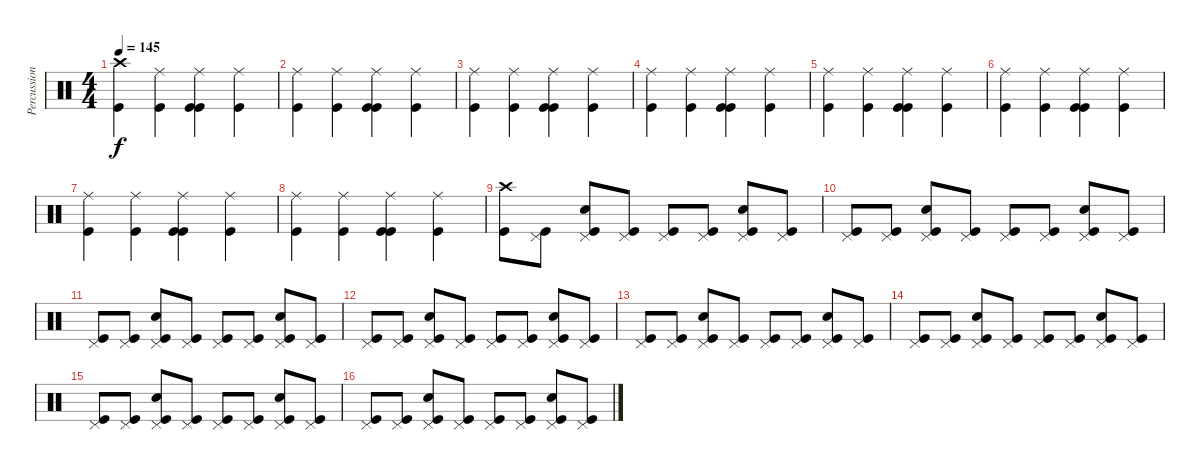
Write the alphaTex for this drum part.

\track ("Percussion" "Percussion") {instrument percussion}
\staff {score}
\articulation defaults
\ts (4 4)
\tempo 145
\clef neutral
\ks c
("Crash high (hit)" "Kick (hit)").4{dy f} ("Ride (middle)" "Kick (hit)").4 ("Ride (middle)" "Kick (hit)" "Kick (hit)").4 ("Ride (middle)" "Kick (hit)").4 |
("Ride (middle)" "Kick (hit)").4 ("Ride (middle)" "Kick (hit)").4 ("Ride (middle)" "Kick (hit)" "Kick (hit)").4 ("Ride (middle)" "Kick (hit)").4 |
("Ride (middle)" "Kick (hit)").4 ("Ride (middle)" "Kick (hit)").4 ("Ride (middle)" "Kick (hit)" "Kick (hit)").4 ("Ride (middle)" "Kick (hit)").4 |
("Ride (middle)" "Kick (hit)").4 ("Ride (middle)" "Kick (hit)").4 ("Ride (middle)" "Kick (hit)" "Kick (hit)").4 ("Ride (middle)" "Kick (hit)").4 |
("Ride (middle)" "Kick (hit)").4 ("Ride (middle)" "Kick (hit)").4 ("Ride (middle)" "Kick (hit)" "Kick (hit)").4 ("Ride (middle)" "Kick (hit)").4 |
("Ride (middle)" "Kick (hit)").4 ("Ride (middle)" "Kick (hit)").4 ("Ride (middle)" "Kick (hit)" "Kick (hit)").4 ("Ride (middle)" "Kick (hit)").4 |
("Ride (middle)" "Kick (hit)").4 ("Ride (middle)" "Kick (hit)").4 ("Ride (middle)" "Kick (hit)" "Kick (hit)").4 ("Ride (middle)" "Kick (hit)").4 |
("Ride (middle)" "Kick (hit)").4 ("Ride (middle)" "Kick (hit)").4 ("Ride (middle)" "Kick (hit)" "Kick (hit)").4 ("Ride (middle)" "Kick (hit)").4 |
("Crash high (hit)" "Kick (hit)").8 ("Pedal Hi-Hat (hit)" "Kick (hit)").8 ("Pedal Hi-Hat (hit)" "Snare (hit) 2" "Kick (hit)").8 ("Pedal Hi-Hat (hit)" "Kick (hit)").8 ("Pedal Hi-Hat (hit)" "Kick (hit)").8 ("Pedal Hi-Hat (hit)" "Kick (hit)").8 ("Pedal Hi-Hat (hit)" "Snare (hit) 2" "Kick (hit)").8 ("Pedal Hi-Hat (hit)" "Kick (hit)").8 |
("Pedal Hi-Hat (hit)" "Kick (hit)").8 ("Pedal Hi-Hat (hit)" "Kick (hit)").8 ("Pedal Hi-Hat (hit)" "Snare (hit) 2" "Kick (hit)").8 ("Pedal Hi-Hat (hit)" "Kick (hit)").8 ("Pedal Hi-Hat (hit)" "Kick (hit)").8 ("Pedal Hi-Hat (hit)" "Kick (hit)").8 ("Pedal Hi-Hat (hit)" "Snare (hit) 2" "Kick (hit)").8 ("Pedal Hi-Hat (hit)" "Kick (hit)").8 |
("Pedal Hi-Hat (hit)" "Kick (hit)").8 ("Pedal Hi-Hat (hit)" "Kick (hit)").8 ("Pedal Hi-Hat (hit)" "Snare (hit) 2" "Kick (hit)").8 ("Pedal Hi-Hat (hit)" "Kick (hit)").8 ("Pedal Hi-Hat (hit)" "Kick (hit)").8 ("Pedal Hi-Hat (hit)" "Kick (hit)").8 ("Pedal Hi-Hat (hit)" "Snare (hit) 2" "Kick (hit)").8 ("Pedal Hi-Hat (hit)" "Kick (hit)").8 |
("Pedal Hi-Hat (hit)" "Kick (hit)").8 ("Pedal Hi-Hat (hit)" "Kick (hit)").8 ("Pedal Hi-Hat (hit)" "Snare (hit) 2" "Kick (hit)").8 ("Pedal Hi-Hat (hit)" "Kick (hit)").8 ("Pedal Hi-Hat (hit)" "Kick (hit)").8 ("Pedal Hi-Hat (hit)" "Kick (hit)").8 ("Pedal Hi-Hat (hit)" "Snare (hit) 2" "Kick (hit)").8 ("Pedal Hi-Hat (hit)" "Kick (hit)").8 |
("Pedal Hi-Hat (hit)" "Kick (hit)").8 ("Pedal Hi-Hat (hit)" "Kick (hit)").8 ("Pedal Hi-Hat (hit)" "Snare (hit) 2" "Kick (hit)").8 ("Pedal Hi-Hat (hit)" "Kick (hit)").8 ("Pedal Hi-Hat (hit)" "Kick (hit)").8 ("Pedal Hi-Hat (hit)" "Kick (hit)").8 ("Pedal Hi-Hat (hit)" "Snare (hit) 2" "Kick (hit)").8 ("Pedal Hi-Hat (hit)" "Kick (hit)").8 |
("Pedal Hi-Hat (hit)" "Kick (hit)").8 ("Pedal Hi-Hat (hit)" "Kick (hit)").8 ("Pedal Hi-Hat (hit)" "Snare (hit) 2" "Kick (hit)").8 ("Pedal Hi-Hat (hit)" "Kick (hit)").8 ("Pedal Hi-Hat (hit)" "Kick (hit)").8 ("Pedal Hi-Hat (hit)" "Kick (hit)").8 ("Pedal Hi-Hat (hit)" "Snare (hit) 2" "Kick (hit)").8 ("Pedal Hi-Hat (hit)" "Kick (hit)").8 |
("Pedal Hi-Hat (hit)" "Kick (hit)").8 ("Pedal Hi-Hat (hit)" "Kick (hit)").8 ("Pedal Hi-Hat (hit)" "Snare (hit) 2" "Kick (hit)").8 ("Pedal Hi-Hat (hit)" "Kick (hit)").8 ("Pedal Hi-Hat (hit)" "Kick (hit)").8 ("Pedal Hi-Hat (hit)" "Kick (hit)").8 ("Pedal Hi-Hat (hit)" "Snare (hit) 2" "Kick (hit)").8 ("Pedal Hi-Hat (hit)" "Kick (hit)").8 |
("Pedal Hi-Hat (hit)" "Kick (hit)").8 ("Pedal Hi-Hat (hit)" "Kick (hit)").8 ("Pedal Hi-Hat (hit)" "Snare (hit) 2" "Kick (hit)").8 ("Pedal Hi-Hat (hit)" "Kick (hit)").8 ("Pedal Hi-Hat (hit)" "Kick (hit)").8 ("Pedal Hi-Hat (hit)" "Kick (hit)").8 ("Pedal Hi-Hat (hit)" "Snare (hit) 2" "Kick (hit)").8 ("Pedal Hi-Hat (hit)" "Kick (hit)").8
